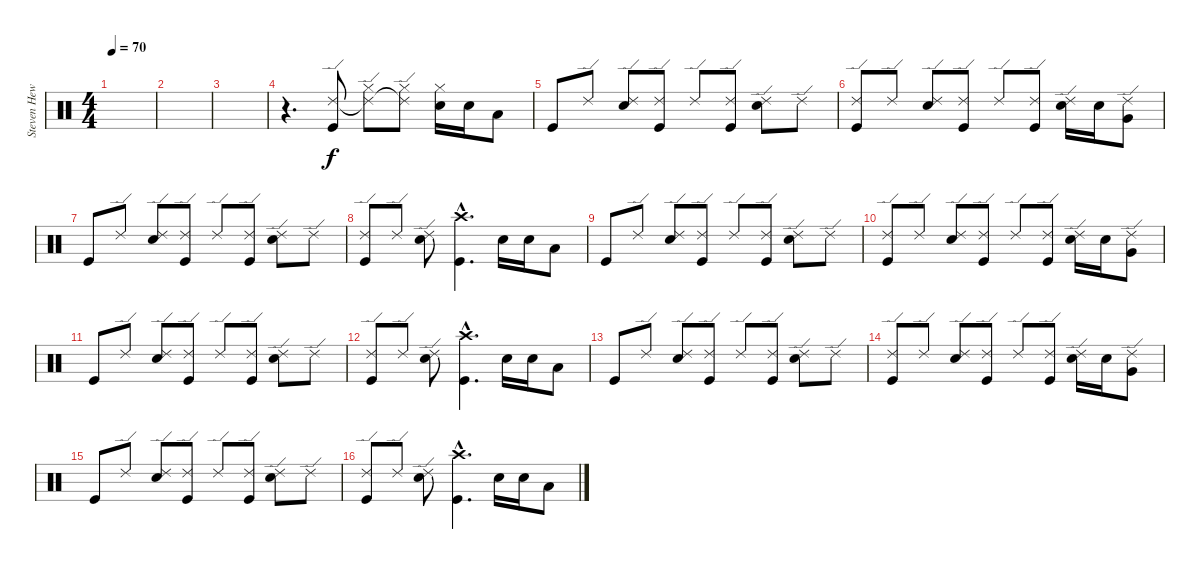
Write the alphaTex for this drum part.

\track ("Steven Hewitt " "Steven Hew") {instrument percussion}
\staff {score}
\articulation defaults
\ts (4 4)
\tempo 70
\clef neutral
\ks c
|
|
|
r.4{d} ("Ride (edge) 2" "Kick (hit)").8 ("Ride (edge) 2"{t} "Hi-Hat (closed)").8 ("Ride (edge) 2"{t} "Hi-Hat (closed)").8 ("Snare (hit) 2" "Hi-Hat (closed)").16 "Snare (hit) 2".16 "Low Floor Tom (hit)".8 |
"Kick (hit)".8 "Ride (edge) 2".8 ("Snare (hit) 2" "Ride (edge) 2").8 ("Ride (edge) 2" "Kick (hit)").8 "Ride (edge) 2".8 ("Ride (edge) 2" "Kick (hit)").8 ("Snare (hit) 2" "Ride (edge) 2").8 "Ride (edge) 2".8 |
("Ride (edge) 2" "Kick (hit)").8 "Ride (edge) 2".8 ("Snare (hit) 2" "Ride (edge) 2").8 ("Ride (edge) 2" "Kick (hit)").8 "Ride (edge) 2".8 ("Ride (edge) 2" "Kick (hit)").8 ("Snare (hit) 2" "Ride (edge) 2").16 "Snare (hit) 2".16 ("Ride (edge) 2" "Very Low Tom (hit)").8 |
"Kick (hit)".8 "Ride (edge) 2".8 ("Snare (hit) 2" "Ride (edge) 2").8 ("Ride (edge) 2" "Kick (hit)").8 "Ride (edge) 2".8 ("Ride (edge) 2" "Kick (hit)").8 ("Snare (hit) 2" "Ride (edge) 2").8 "Ride (edge) 2".8 |
("Ride (edge) 2" "Kick (hit)").8 "Ride (edge) 2".8 ("Snare (hit) 2" "Ride (edge) 2").8 ("Crash high (hit)"{hac} "Kick (hit)"{hac}).4{d} "Snare (hit) 2".16 "Snare (hit) 2".16 "Low Floor Tom (hit)".8 |
"Kick (hit)".8 "Ride (edge) 2".8 ("Snare (hit) 2" "Ride (edge) 2").8 ("Ride (edge) 2" "Kick (hit)").8 "Ride (edge) 2".8 ("Ride (edge) 2" "Kick (hit)").8 ("Snare (hit) 2" "Ride (edge) 2").8 "Ride (edge) 2".8 |
("Ride (edge) 2" "Kick (hit)").8 "Ride (edge) 2".8 ("Snare (hit) 2" "Ride (edge) 2").8 ("Ride (edge) 2" "Kick (hit)").8 "Ride (edge) 2".8 ("Ride (edge) 2" "Kick (hit)").8 ("Snare (hit) 2" "Ride (edge) 2").16 "Snare (hit) 2".16 ("Ride (edge) 2" "Very Low Tom (hit)").8 |
"Kick (hit)".8 "Ride (edge) 2".8 ("Snare (hit) 2" "Ride (edge) 2").8 ("Ride (edge) 2" "Kick (hit)").8 "Ride (edge) 2".8 ("Ride (edge) 2" "Kick (hit)").8 ("Snare (hit) 2" "Ride (edge) 2").8 "Ride (edge) 2".8 |
("Ride (edge) 2" "Kick (hit)").8 "Ride (edge) 2".8 ("Snare (hit) 2" "Ride (edge) 2").8 ("Crash high (hit)"{hac} "Kick (hit)"{hac}).4{d} "Snare (hit) 2".16 "Snare (hit) 2".16 "Low Floor Tom (hit)".8 |
"Kick (hit)".8 "Ride (edge) 2".8 ("Snare (hit) 2" "Ride (edge) 2").8 ("Ride (edge) 2" "Kick (hit)").8 "Ride (edge) 2".8 ("Ride (edge) 2" "Kick (hit)").8 ("Snare (hit) 2" "Ride (edge) 2").8 "Ride (edge) 2".8 |
("Ride (edge) 2" "Kick (hit)").8 "Ride (edge) 2".8 ("Snare (hit) 2" "Ride (edge) 2").8 ("Ride (edge) 2" "Kick (hit)").8 "Ride (edge) 2".8 ("Ride (edge) 2" "Kick (hit)").8 ("Snare (hit) 2" "Ride (edge) 2").16 "Snare (hit) 2".16 ("Ride (edge) 2" "Very Low Tom (hit)").8 |
"Kick (hit)".8 "Ride (edge) 2".8 ("Snare (hit) 2" "Ride (edge) 2").8 ("Ride (edge) 2" "Kick (hit)").8 "Ride (edge) 2".8 ("Ride (edge) 2" "Kick (hit)").8 ("Snare (hit) 2" "Ride (edge) 2").8 "Ride (edge) 2".8 |
("Ride (edge) 2" "Kick (hit)").8 "Ride (edge) 2".8 ("Snare (hit) 2" "Ride (edge) 2").8 ("Crash high (hit)"{hac} "Kick (hit)"{hac}).4{d} "Snare (hit) 2".16 "Snare (hit) 2".16 "Low Floor Tom (hit)".8
